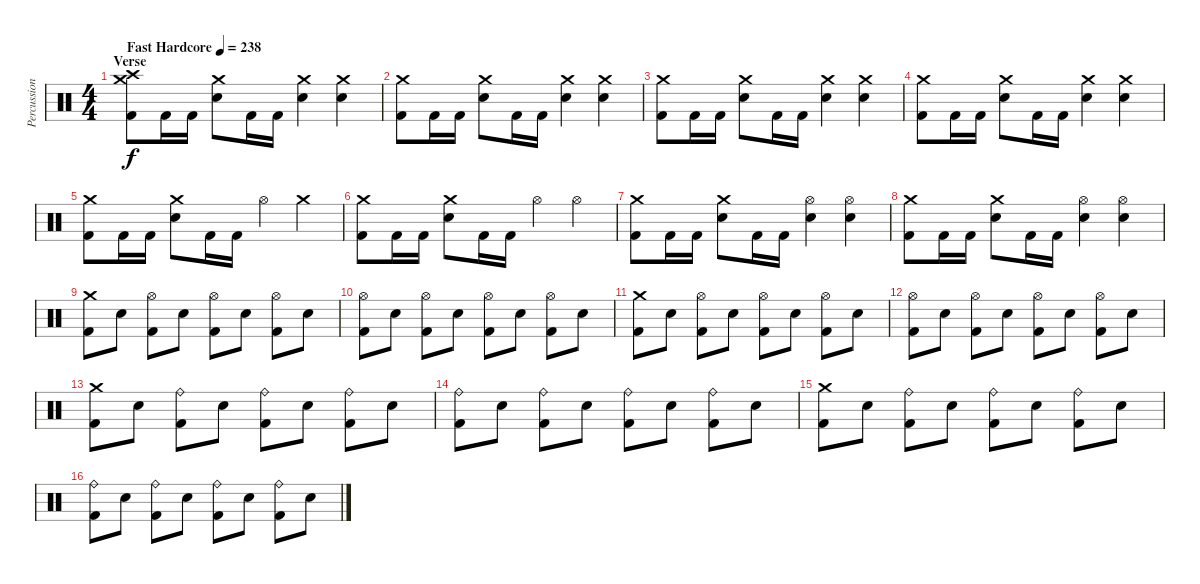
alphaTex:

\track ("Percussion" "Percussion") {instrument percussion}
\staff {score}
\articulation defaults
\ts (4 4)
\section ("" "Verse")
\tempo (238 "Fast Hardcore")
\clef neutral
\ks c
("Crash medium (hit)" "Crash high (hit)" "Kick (hit) 2").8{dy f} "Kick (hit) 2".16 "Kick (hit) 2".16 ("Crash medium (hit)" "Electric Snare (hit)").8 "Kick (hit) 2".16 "Kick (hit) 2".16 ("Crash medium (hit)" "Electric Snare (hit)").4 ("Crash medium (hit)" "Electric Snare (hit)").4 |
("Crash medium (hit)" "Kick (hit) 2").8 "Kick (hit) 2".16 "Kick (hit) 2".16 ("Crash medium (hit)" "Electric Snare (hit)").8 "Kick (hit) 2".16 "Kick (hit) 2".16 ("Crash medium (hit)" "Electric Snare (hit)").4 ("Crash medium (hit)" "Electric Snare (hit)").4 |
("Crash medium (hit)" "Kick (hit) 2").8 "Kick (hit) 2".16 "Kick (hit) 2".16 ("Crash medium (hit)" "Electric Snare (hit)").8 "Kick (hit) 2".16 "Kick (hit) 2".16 ("Crash medium (hit)" "Electric Snare (hit)").4 ("Crash medium (hit)" "Electric Snare (hit)").4 |
("Crash medium (hit)" "Kick (hit) 2").8 "Kick (hit) 2".16 "Kick (hit) 2".16 ("Crash medium (hit)" "Electric Snare (hit)").8 "Kick (hit) 2".16 "Kick (hit) 2".16 ("Crash medium (hit)" "Electric Snare (hit)").4 ("Crash medium (hit)" "Electric Snare (hit)").4 |
("Crash medium (hit)" "Kick (hit) 2").8 "Kick (hit) 2".16 "Kick (hit) 2".16 ("Crash medium (hit)" "Electric Snare (hit)").8 "Kick (hit) 2".16 "Kick (hit) 2".16 "Hi-Hat (open)".4 "Crash medium (hit)".4 |
("Crash medium (hit)" "Kick (hit) 2").8 "Kick (hit) 2".16 "Kick (hit) 2".16 ("Crash medium (hit)" "Electric Snare (hit)").8 "Kick (hit) 2".16 "Kick (hit) 2".16 "Hi-Hat (open)".4 "Hi-Hat (open)".4 |
("Crash medium (hit)" "Kick (hit) 2").8 "Kick (hit) 2".16 "Kick (hit) 2".16 ("Crash medium (hit)" "Electric Snare (hit)").8 "Kick (hit) 2".16 "Kick (hit) 2".16 ("Hi-Hat (open)" "Electric Snare (hit)").4 ("Hi-Hat (open)" "Electric Snare (hit)").4 |
("Crash medium (hit)" "Kick (hit) 2").8 "Kick (hit) 2".16 "Kick (hit) 2".16 ("Crash medium (hit)" "Electric Snare (hit)").8 "Kick (hit) 2".16 "Kick (hit) 2".16 ("Hi-Hat (open)" "Electric Snare (hit)").4 ("Hi-Hat (open)" "Electric Snare (hit)").4 |
("Crash medium (hit)" "Kick (hit) 2").8 "Electric Snare (hit)".8 ("Hi-Hat (open)" "Kick (hit) 2").8 "Electric Snare (hit)".8 ("Hi-Hat (open)" "Kick (hit) 2").8 "Electric Snare (hit)".8 ("Hi-Hat (open)" "Kick (hit) 2").8 "Electric Snare (hit)".8 |
("Hi-Hat (open)" "Kick (hit) 2").8 "Electric Snare (hit)".8 ("Hi-Hat (open)" "Kick (hit) 2").8 "Electric Snare (hit)".8 ("Hi-Hat (open)" "Kick (hit) 2").8 "Electric Snare (hit)".8 ("Hi-Hat (open)" "Kick (hit) 2").8 "Electric Snare (hit)".8 |
("Crash medium (hit)" "Kick (hit) 2").8 "Electric Snare (hit)".8 ("Hi-Hat (open)" "Kick (hit) 2").8 "Electric Snare (hit)".8 ("Hi-Hat (open)" "Kick (hit) 2").8 "Electric Snare (hit)".8 ("Hi-Hat (open)" "Kick (hit) 2").8 "Electric Snare (hit)".8 |
("Hi-Hat (open)" "Kick (hit) 2").8 "Electric Snare (hit)".8 ("Hi-Hat (open)" "Kick (hit) 2").8 "Electric Snare (hit)".8 ("Hi-Hat (open)" "Kick (hit) 2").8 "Electric Snare (hit)".8 ("Hi-Hat (open)" "Kick (hit) 2").8 "Electric Snare (hit)".8 |
("Crash medium (hit)" "Kick (hit) 2").8 "Electric Snare (hit)".8 ("Ride (bell)" "Kick (hit) 2").8 "Electric Snare (hit)".8 ("Ride (bell)" "Kick (hit) 2").8 "Electric Snare (hit)".8 ("Ride (bell)" "Kick (hit) 2").8 "Electric Snare (hit)".8 |
("Ride (bell)" "Kick (hit) 2").8 "Electric Snare (hit)".8 ("Ride (bell)" "Kick (hit) 2").8 "Electric Snare (hit)".8 ("Ride (bell)" "Kick (hit) 2").8 "Electric Snare (hit)".8 ("Ride (bell)" "Kick (hit) 2").8 "Electric Snare (hit)".8 |
("Crash medium (hit)" "Kick (hit) 2").8 "Electric Snare (hit)".8 ("Ride (bell)" "Kick (hit) 2").8 "Electric Snare (hit)".8 ("Ride (bell)" "Kick (hit) 2").8 "Electric Snare (hit)".8 ("Ride (bell)" "Kick (hit) 2").8 "Electric Snare (hit)".8 |
("Ride (bell)" "Kick (hit) 2").8 "Electric Snare (hit)".8 ("Ride (bell)" "Kick (hit) 2").8 "Electric Snare (hit)".8 ("Ride (bell)" "Kick (hit) 2").8 "Electric Snare (hit)".8 ("Ride (bell)" "Kick (hit) 2").8 "Electric Snare (hit)".8
